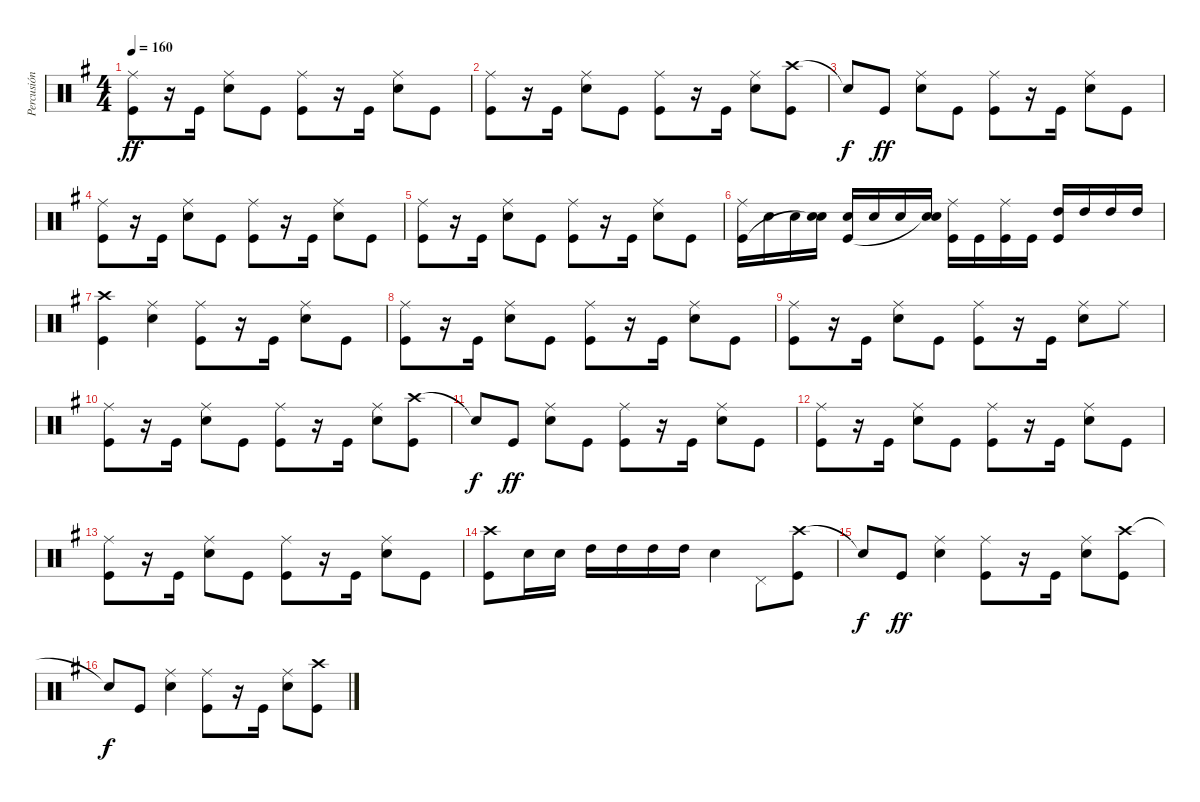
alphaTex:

\track ("Percusión" "Percusión") {instrument percussion}
\staff {score}
\articulation defaults
\ts (4 4)
\tempo 160
\clef neutral
\ks g
("Ride (middle)" "Kick (hit)").8{dy ff} r.16 "Kick (hit)".16 ("Ride (middle)" "Snare (hit) 2").8 "Kick (hit)".8 ("Ride (middle)" "Kick (hit)").8 r.16 "Kick (hit)".16 ("Ride (middle)" "Snare (hit) 2").8 "Kick (hit)".8 |
("Ride (middle)" "Kick (hit)").8 r.16 "Kick (hit)".16 ("Ride (middle)" "Snare (hit) 2").8 "Kick (hit)".8 ("Ride (middle)" "Kick (hit)").8 r.16 "Kick (hit)".16 ("Ride (middle)" "Snare (hit) 2").8 ("Crash high (hit)" "Kick (hit)").8 |
"Snare (hit)"{t}.8{dy f} "Kick (hit)".8{dy ff} ("Ride (middle)" "Snare (hit) 2").8 "Kick (hit)".8 ("Ride (middle)" "Kick (hit)").8 r.16 "Kick (hit)".16 ("Ride (middle)" "Snare (hit) 2").8 "Kick (hit)".8 |
("Ride (middle)" "Kick (hit)").8 r.16 "Kick (hit)".16 ("Ride (middle)" "Snare (hit) 2").8 "Kick (hit)".8 ("Ride (middle)" "Kick (hit)").8 r.16 "Kick (hit)".16 ("Ride (middle)" "Snare (hit) 2").8 "Kick (hit)".8 |
("Ride (middle)" "Kick (hit)").8 r.16 "Kick (hit)".16 ("Ride (middle)" "Snare (hit) 2").8 "Kick (hit)".8 ("Ride (middle)" "Kick (hit)").8 r.16 "Kick (hit)".16 ("Ride (middle)" "Snare (hit) 2").8 "Kick (hit)".8 |
("Ride (middle)" "Kick (hit)").16 "Snare (hit) 2".16 "Snare (hit) 2".16 ("Snare (hit) 2" "Snare (hit)"{t}).16 ("Snare (hit) 2" "Kick (hit)").16 "Snare (hit) 2".16 "Snare (hit) 2".16 ("Snare (hit) 2" "Snare (hit)"{t}).16 ("Ride (middle)" "Kick (hit)").16 "Kick (hit)".16 ("Ride (middle)" "Kick (hit)").16 "Kick (hit)".16 ("High Tom (hit)" "Kick (hit)").16 "High Tom (hit)".16 "High Tom (hit)".16 "High Tom (hit)".16 |
("Crash high (hit)" "Kick (hit)").4 ("Ride (middle)" "Snare (hit) 2").4 ("Ride (middle)" "Kick (hit)").8 r.16 "Kick (hit)".16 ("Ride (middle)" "Snare (hit) 2").8 "Kick (hit)".8 |
("Ride (middle)" "Kick (hit)").8 r.16 "Kick (hit)".16 ("Ride (middle)" "Snare (hit) 2").8 "Kick (hit)".8 ("Ride (middle)" "Kick (hit)").8 r.16 "Kick (hit)".16 ("Ride (middle)" "Snare (hit) 2").8 "Kick (hit)".8 |
("Ride (middle)" "Kick (hit)").8 r.16 "Kick (hit)".16 ("Ride (middle)" "Snare (hit) 2").8 "Kick (hit)".8 ("Ride (middle)" "Kick (hit)").8 r.16 "Kick (hit)".16 ("Ride (middle)" "Snare (hit) 2").8 "Ride (middle)".8 |
("Ride (middle)" "Kick (hit)").8 r.16 "Kick (hit)".16 ("Ride (middle)" "Snare (hit) 2").8 "Kick (hit)".8 ("Ride (middle)" "Kick (hit)").8 r.16 "Kick (hit)".16 ("Ride (middle)" "Snare (hit) 2").8 ("Crash high (hit)" "Kick (hit)").8 |
"Snare (hit)"{t}.8{dy f} "Kick (hit)".8{dy ff} ("Ride (middle)" "Snare (hit) 2").8 "Kick (hit)".8 ("Ride (middle)" "Kick (hit)").8 r.16 "Kick (hit)".16 ("Ride (middle)" "Snare (hit) 2").8 "Kick (hit)".8 |
("Ride (middle)" "Kick (hit)").8 r.16 "Kick (hit)".16 ("Ride (middle)" "Snare (hit) 2").8 "Kick (hit)".8 ("Ride (middle)" "Kick (hit)").8 r.16 "Kick (hit)".16 ("Ride (middle)" "Snare (hit) 2").8 "Kick (hit)".8 |
("Ride (middle)" "Kick (hit)").8 r.16 "Kick (hit)".16 ("Ride (middle)" "Snare (hit) 2").8 "Kick (hit)".8 ("Ride (middle)" "Kick (hit)").8 r.16 "Kick (hit)".16 ("Ride (middle)" "Snare (hit) 2").8 "Kick (hit)".8 |
("Crash high (hit)" "Kick (hit)").8 "Snare (hit) 2".16 "Snare (hit) 2".16 "High Tom (hit)".16 "High Tom (hit)".16 "High Tom (hit)".16 "High Tom (hit)".16 "Snare (hit) 2".4 "Pedal Hi-Hat (hit)".8 ("Crash high (hit)" "Kick (hit)").8 |
"Snare (hit)"{t}.8{dy f} "Kick (hit)".8{dy ff} ("Ride (middle)" "Snare (hit) 2").4 ("Ride (middle)" "Kick (hit)").8 r.16 "Kick (hit)".16 ("Ride (middle)" "Snare (hit) 2").8 ("Crash high (hit)" "Kick (hit)").8 |
"Snare (hit)"{t}.8{dy f} "Kick (hit)".8 ("Ride (middle)" "Snare (hit) 2").4 ("Ride (middle)" "Kick (hit)").8 r.16 "Kick (hit)".16 ("Ride (middle)" "Snare (hit) 2").8 ("Crash high (hit)" "Kick (hit)").8
